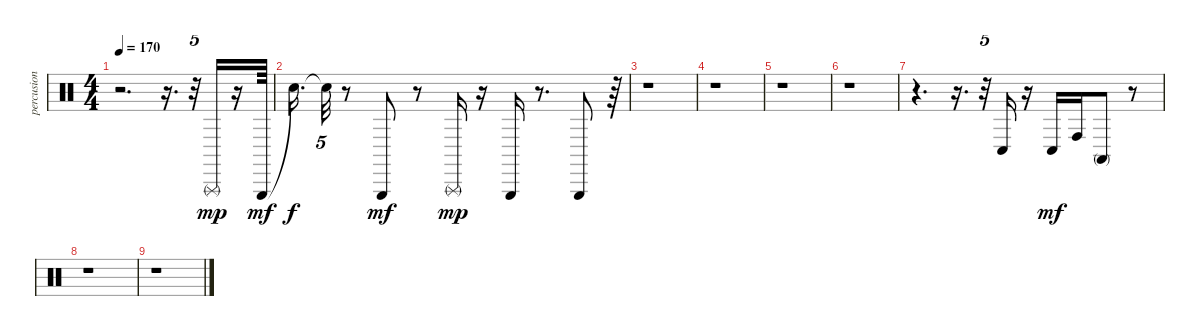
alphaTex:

\track ("percusion" "percusion") {instrument percussion}
\staff {score}
\articulation defaults
\ts (4 4)
\tempo 170
\clef neutral
\ks c
r.2{d dy mp} r.16{d} r.32{tu (5 4)} "Triangle (rnute)".16 r.16 "Triangle (hit)".64{dy mf} |
"Snare (hit)"{t}.16{d dy f} "Snare (hit)"{t}.32{tu (5 4)} r.8 "Triangle (hit)".8{dy mf} r.8 "Triangle (rnute)".16{dy mp} r.16 "Triangle (hit)".16 r.8{d} "Triangle (hit)".8 r.64 |
r.1 |
r.1 |
r.1 |
r.1 |
r.4{d} r.16{d} r.32{tu (5 4)} "Conga low (hit)".16 r.16 "Conga low (hit)".16{dy mf} "Conga high (hit)".16 "Conga high (mute)".8 r.8 |
r.1 |
r.1
